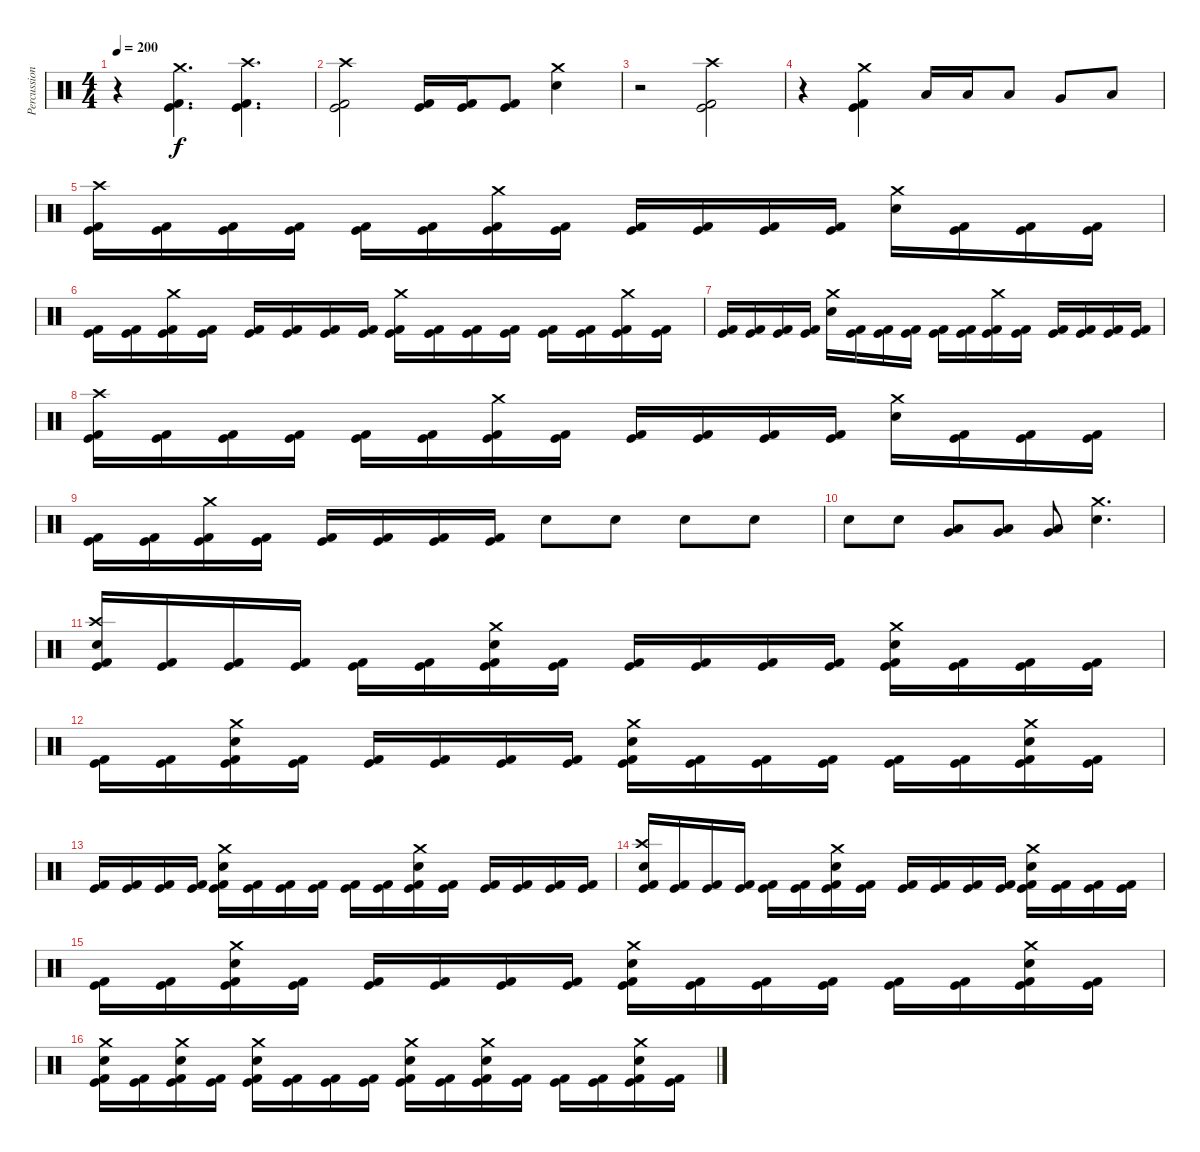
\track ("Percussions" "Percussion") {instrument percussion}
\staff {score}
\articulation defaults
\ts (4 4)
\tempo 200
\clef neutral
\ks c
r.4{dy f} ("Crash medium (hit)" "Kick (hit)" "Kick (hit) 2").4{d} ("Crash high (hit)" "Kick (hit)" "Kick (hit) 2").4{d} |
("Crash high (hit)" "Kick (hit)" "Kick (hit) 2").2 ("Kick (hit)" "Kick (hit) 2").16 ("Kick (hit)" "Kick (hit) 2").16 ("Kick (hit)" "Kick (hit) 2").8 ("Crash medium (hit)" "Electric Snare (hit)").4 |
r.2 ("Crash high (hit)" "Kick (hit)" "Kick (hit) 2").2 |
r.4 ("Crash medium (hit)" "Kick (hit)" "Kick (hit) 2").4 "Low Tom (hit)".16 "Low Tom (hit)".16 "Low Tom (hit)".8 "Very Low Tom (hit)".8 "Low Floor Tom (hit)".8 |
("Crash high (hit)" "Kick (hit)" "Kick (hit) 2").16 ("Kick (hit)" "Kick (hit) 2").16 ("Kick (hit)" "Kick (hit) 2").16 ("Kick (hit)" "Kick (hit) 2").16 ("Kick (hit)" "Kick (hit) 2").16 ("Kick (hit)" "Kick (hit) 2").16 ("Crash medium (hit)" "Kick (hit)" "Kick (hit) 2").16 ("Kick (hit)" "Kick (hit) 2").16 ("Kick (hit)" "Kick (hit) 2").16 ("Kick (hit)" "Kick (hit) 2").16 ("Kick (hit)" "Kick (hit) 2").16 ("Kick (hit)" "Kick (hit) 2").16 ("Crash medium (hit)" "Electric Snare (hit)").16 ("Kick (hit)" "Kick (hit) 2").16 ("Kick (hit)" "Kick (hit) 2").16 ("Kick (hit)" "Kick (hit) 2").16 |
("Kick (hit)" "Kick (hit) 2").16 ("Kick (hit)" "Kick (hit) 2").16 ("Crash medium (hit)" "Kick (hit)" "Kick (hit) 2").16 ("Kick (hit)" "Kick (hit) 2").16 ("Kick (hit)" "Kick (hit) 2").16 ("Kick (hit)" "Kick (hit) 2").16 ("Kick (hit)" "Kick (hit) 2").16 ("Kick (hit)" "Kick (hit) 2").16 ("Crash medium (hit)" "Kick (hit)" "Kick (hit) 2").16 ("Kick (hit)" "Kick (hit) 2").16 ("Kick (hit)" "Kick (hit) 2").16 ("Kick (hit)" "Kick (hit) 2").16 ("Kick (hit)" "Kick (hit) 2").16 ("Kick (hit)" "Kick (hit) 2").16 ("Crash medium (hit)" "Kick (hit)" "Kick (hit) 2").16 ("Kick (hit)" "Kick (hit) 2").16 |
("Kick (hit)" "Kick (hit) 2").16 ("Kick (hit)" "Kick (hit) 2").16 ("Kick (hit)" "Kick (hit) 2").16 ("Kick (hit)" "Kick (hit) 2").16 ("Crash medium (hit)" "Electric Snare (hit)").16 ("Kick (hit)" "Kick (hit) 2").16 ("Kick (hit)" "Kick (hit) 2").16 ("Kick (hit)" "Kick (hit) 2").16 ("Kick (hit)" "Kick (hit) 2").16 ("Kick (hit)" "Kick (hit) 2").16 ("Crash medium (hit)" "Kick (hit)" "Kick (hit) 2").16 ("Kick (hit)" "Kick (hit) 2").16 ("Kick (hit)" "Kick (hit) 2").16 ("Kick (hit)" "Kick (hit) 2").16 ("Kick (hit)" "Kick (hit) 2").16 ("Kick (hit)" "Kick (hit) 2").16 |
("Crash high (hit)" "Kick (hit)" "Kick (hit) 2").16 ("Kick (hit)" "Kick (hit) 2").16 ("Kick (hit)" "Kick (hit) 2").16 ("Kick (hit)" "Kick (hit) 2").16 ("Kick (hit)" "Kick (hit) 2").16 ("Kick (hit)" "Kick (hit) 2").16 ("Crash medium (hit)" "Kick (hit)" "Kick (hit) 2").16 ("Kick (hit)" "Kick (hit) 2").16 ("Kick (hit)" "Kick (hit) 2").16 ("Kick (hit)" "Kick (hit) 2").16 ("Kick (hit)" "Kick (hit) 2").16 ("Kick (hit)" "Kick (hit) 2").16 ("Crash medium (hit)" "Electric Snare (hit)").16 ("Kick (hit)" "Kick (hit) 2").16 ("Kick (hit)" "Kick (hit) 2").16 ("Kick (hit)" "Kick (hit) 2").16 |
("Kick (hit)" "Kick (hit) 2").16 ("Kick (hit)" "Kick (hit) 2").16 ("Crash medium (hit)" "Kick (hit)" "Kick (hit) 2").16 ("Kick (hit)" "Kick (hit) 2").16 ("Kick (hit)" "Kick (hit) 2").16 ("Kick (hit)" "Kick (hit) 2").16 ("Kick (hit)" "Kick (hit) 2").16 ("Kick (hit)" "Kick (hit) 2").16 "Electric Snare (hit)".8 "Electric Snare (hit)".8 "Electric Snare (hit)".8 "Electric Snare (hit)".8 |
"Electric Snare (hit)".8 "Electric Snare (hit)".8 ("Very Low Tom (hit)" "Low Floor Tom (hit)").8 ("Very Low Tom (hit)" "Low Floor Tom (hit)").8 ("Very Low Tom (hit)" "Low Floor Tom (hit)").8 ("Crash medium (hit)" "Electric Snare (hit)").4{d} |
("Crash high (hit)" "Electric Snare (hit)" "Kick (hit)" "Kick (hit) 2").16 ("Kick (hit)" "Kick (hit) 2").16 ("Kick (hit)" "Kick (hit) 2").16 ("Kick (hit)" "Kick (hit) 2").16 ("Kick (hit)" "Kick (hit) 2").16 ("Kick (hit)" "Kick (hit) 2").16 ("Crash medium (hit)" "Electric Snare (hit)" "Kick (hit)" "Kick (hit) 2").16 ("Kick (hit)" "Kick (hit) 2").16 ("Kick (hit)" "Kick (hit) 2").16 ("Kick (hit)" "Kick (hit) 2").16 ("Kick (hit)" "Kick (hit) 2").16 ("Kick (hit)" "Kick (hit) 2").16 ("Crash medium (hit)" "Electric Snare (hit)" "Kick (hit)" "Kick (hit) 2").16 ("Kick (hit)" "Kick (hit) 2").16 ("Kick (hit)" "Kick (hit) 2").16 ("Kick (hit)" "Kick (hit) 2").16 |
("Kick (hit)" "Kick (hit) 2").16 ("Kick (hit)" "Kick (hit) 2").16 ("Crash medium (hit)" "Electric Snare (hit)" "Kick (hit)" "Kick (hit) 2").16 ("Kick (hit)" "Kick (hit) 2").16 ("Kick (hit)" "Kick (hit) 2").16 ("Kick (hit)" "Kick (hit) 2").16 ("Kick (hit)" "Kick (hit) 2").16 ("Kick (hit)" "Kick (hit) 2").16 ("Crash medium (hit)" "Electric Snare (hit)" "Kick (hit)" "Kick (hit) 2").16 ("Kick (hit)" "Kick (hit) 2").16 ("Kick (hit)" "Kick (hit) 2").16 ("Kick (hit)" "Kick (hit) 2").16 ("Kick (hit)" "Kick (hit) 2").16 ("Kick (hit)" "Kick (hit) 2").16 ("Crash medium (hit)" "Electric Snare (hit)" "Kick (hit)" "Kick (hit) 2").16 ("Kick (hit)" "Kick (hit) 2").16 |
("Kick (hit)" "Kick (hit) 2").16 ("Kick (hit)" "Kick (hit) 2").16 ("Kick (hit)" "Kick (hit) 2").16 ("Kick (hit)" "Kick (hit) 2").16 ("Crash medium (hit)" "Electric Snare (hit)" "Kick (hit)" "Kick (hit) 2").16 ("Kick (hit)" "Kick (hit) 2").16 ("Kick (hit)" "Kick (hit) 2").16 ("Kick (hit)" "Kick (hit) 2").16 ("Kick (hit)" "Kick (hit) 2").16 ("Kick (hit)" "Kick (hit) 2").16 ("Crash medium (hit)" "Electric Snare (hit)" "Kick (hit)" "Kick (hit) 2").16 ("Kick (hit)" "Kick (hit) 2").16 ("Kick (hit)" "Kick (hit) 2").16 ("Kick (hit)" "Kick (hit) 2").16 ("Kick (hit)" "Kick (hit) 2").16 ("Kick (hit)" "Kick (hit) 2").16 |
("Crash high (hit)" "Electric Snare (hit)" "Kick (hit)" "Kick (hit) 2").16 ("Kick (hit)" "Kick (hit) 2").16 ("Kick (hit)" "Kick (hit) 2").16 ("Kick (hit)" "Kick (hit) 2").16 ("Kick (hit)" "Kick (hit) 2").16 ("Kick (hit)" "Kick (hit) 2").16 ("Crash medium (hit)" "Electric Snare (hit)" "Kick (hit)" "Kick (hit) 2").16 ("Kick (hit)" "Kick (hit) 2").16 ("Kick (hit)" "Kick (hit) 2").16 ("Kick (hit)" "Kick (hit) 2").16 ("Kick (hit)" "Kick (hit) 2").16 ("Kick (hit)" "Kick (hit) 2").16 ("Crash medium (hit)" "Electric Snare (hit)" "Kick (hit)" "Kick (hit) 2").16 ("Kick (hit)" "Kick (hit) 2").16 ("Kick (hit)" "Kick (hit) 2").16 ("Kick (hit)" "Kick (hit) 2").16 |
("Kick (hit)" "Kick (hit) 2").16 ("Kick (hit)" "Kick (hit) 2").16 ("Crash medium (hit)" "Electric Snare (hit)" "Kick (hit)" "Kick (hit) 2").16 ("Kick (hit)" "Kick (hit) 2").16 ("Kick (hit)" "Kick (hit) 2").16 ("Kick (hit)" "Kick (hit) 2").16 ("Kick (hit)" "Kick (hit) 2").16 ("Kick (hit)" "Kick (hit) 2").16 ("Crash medium (hit)" "Electric Snare (hit)" "Kick (hit)" "Kick (hit) 2").16 ("Kick (hit)" "Kick (hit) 2").16 ("Kick (hit)" "Kick (hit) 2").16 ("Kick (hit)" "Kick (hit) 2").16 ("Kick (hit)" "Kick (hit) 2").16 ("Kick (hit)" "Kick (hit) 2").16 ("Crash medium (hit)" "Electric Snare (hit)" "Kick (hit)" "Kick (hit) 2").16 ("Kick (hit)" "Kick (hit) 2").16 |
("Crash medium (hit)" "Electric Snare (hit)" "Kick (hit)" "Kick (hit) 2").16 ("Kick (hit)" "Kick (hit) 2").16 ("Crash medium (hit)" "Electric Snare (hit)" "Kick (hit)" "Kick (hit) 2").16 ("Kick (hit)" "Kick (hit) 2").16 ("Crash medium (hit)" "Electric Snare (hit)" "Kick (hit)" "Kick (hit) 2").16 ("Kick (hit)" "Kick (hit) 2").16 ("Kick (hit)" "Kick (hit) 2").16 ("Kick (hit)" "Kick (hit) 2").16 ("Crash medium (hit)" "Electric Snare (hit)" "Kick (hit)" "Kick (hit) 2").16 ("Kick (hit)" "Kick (hit) 2").16 ("Crash medium (hit)" "Electric Snare (hit)" "Kick (hit)" "Kick (hit) 2").16 ("Kick (hit)" "Kick (hit) 2").16 ("Kick (hit)" "Kick (hit) 2").16 ("Kick (hit)" "Kick (hit) 2").16 ("Crash medium (hit)" "Electric Snare (hit)" "Kick (hit)" "Kick (hit) 2").16 ("Kick (hit)" "Kick (hit) 2").16
